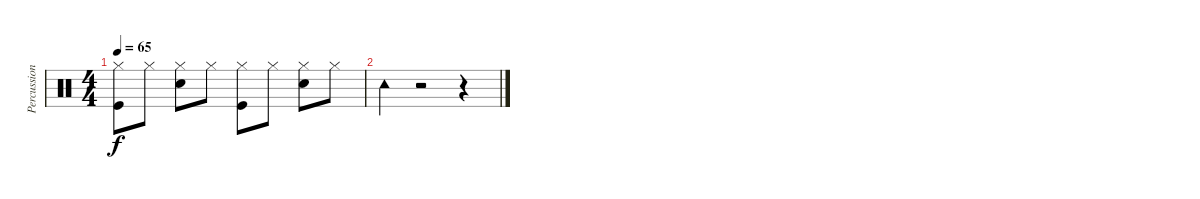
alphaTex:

\track ("Percussion" "Percussion") {instrument percussion}
\staff {score}
\articulation defaults
\ts (4 4)
\tempo 65
\clef neutral
\ks c
("Hi-Hat (closed)" "Kick (hit)").8{dy f} "Hi-Hat (closed)".8 ("Hi-Hat (closed)" "Electric Snare (hit)").8 "Hi-Hat (closed)".8 ("Hi-Hat (closed)" "Kick (hit)").8 "Hi-Hat (closed)".8 ("Hi-Hat (closed)" "Electric Snare (hit)").8 "Hi-Hat (closed)".8 |
"Tambourine (hit)".4 r.2 r.4
